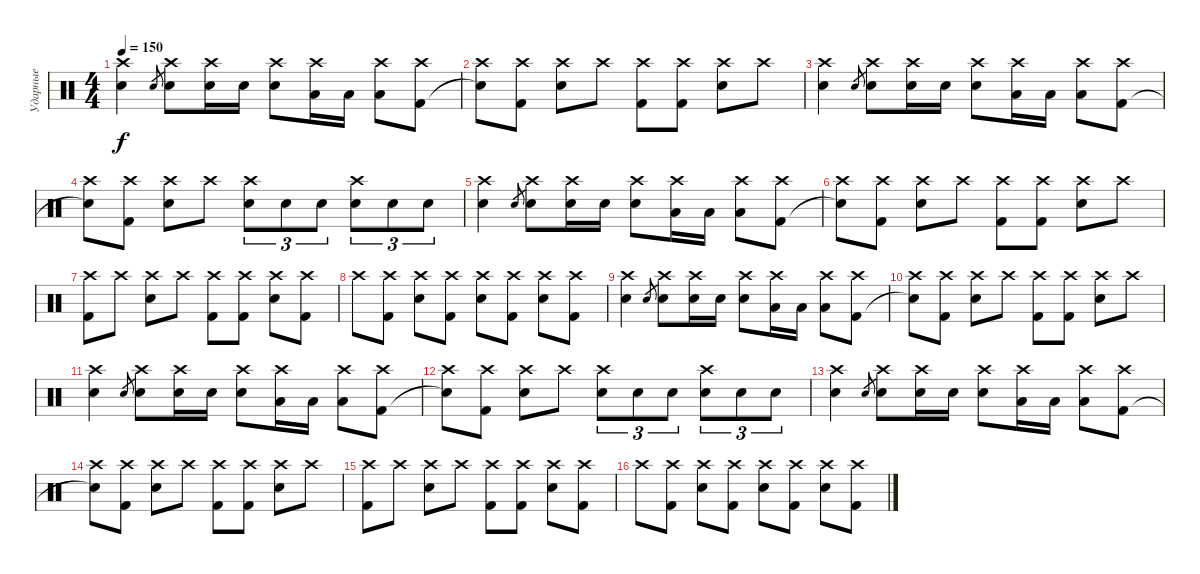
\track ("Ударные" "Ударные") {instrument percussion}
\staff {score}
\articulation defaults
\ts (4 4)
\tempo 150
\clef neutral
\ks c
("Crash high (hit)" "Snare (hit) 2").4{dy f} "Snare (hit) 2".8{gr} ("Crash high (hit)" "Snare (hit) 2").8 ("Crash high (hit)" "Snare (hit) 2").16 "Snare (hit) 2".16 ("Crash high (hit)" "Snare (hit) 2").8 ("Crash high (hit)" "Low Floor Tom (hit)").16 "Low Floor Tom (hit)".16 ("Crash high (hit)" "Low Floor Tom (hit)").8 ("Crash high (hit)" "Kick (hit) 2").8 |
("Crash high (hit)" "Snare (hit)"{t}).8 ("Crash high (hit)" "Kick (hit) 2").8 ("Crash high (hit)" "Snare (hit) 2").8 "Crash high (hit)".8 ("Crash high (hit)" "Kick (hit) 2").8 ("Crash high (hit)" "Kick (hit) 2").8 ("Crash high (hit)" "Snare (hit) 2").8 "Crash high (hit)".8 |
("Crash high (hit)" "Snare (hit) 2").4 "Snare (hit) 2".8{gr} ("Crash high (hit)" "Snare (hit) 2").8 ("Crash high (hit)" "Snare (hit) 2").16 "Snare (hit) 2".16 ("Crash high (hit)" "Snare (hit) 2").8 ("Crash high (hit)" "Low Floor Tom (hit)").16 "Low Floor Tom (hit)".16 ("Crash high (hit)" "Low Floor Tom (hit)").8 ("Crash high (hit)" "Kick (hit) 2").8 |
("Crash high (hit)" "Snare (hit)"{t}).8 ("Crash high (hit)" "Kick (hit) 2").8 ("Crash high (hit)" "Snare (hit) 2").8 "Crash high (hit)".8 ("Crash high (hit)" "Snare (hit) 2").8{tu (3 2)} "Snare (hit) 2".8{tu (3 2)} "Snare (hit) 2".8{tu (3 2)} ("Crash high (hit)" "Snare (hit) 2").8{tu (3 2)} "Snare (hit) 2".8{tu (3 2)} "Snare (hit) 2".8{tu (3 2)} |
("Crash high (hit)" "Snare (hit) 2").4 "Snare (hit) 2".8{gr} ("Crash high (hit)" "Snare (hit) 2").8 ("Crash high (hit)" "Snare (hit) 2").16 "Snare (hit) 2".16 ("Crash high (hit)" "Snare (hit) 2").8 ("Crash high (hit)" "Low Floor Tom (hit)").16 "Low Floor Tom (hit)".16 ("Crash high (hit)" "Low Floor Tom (hit)").8 ("Crash high (hit)" "Kick (hit) 2").8 |
("Crash high (hit)" "Snare (hit)"{t}).8 ("Crash high (hit)" "Kick (hit) 2").8 ("Crash high (hit)" "Snare (hit) 2").8 "Crash high (hit)".8 ("Crash high (hit)" "Kick (hit) 2").8 ("Crash high (hit)" "Kick (hit) 2").8 ("Crash high (hit)" "Snare (hit) 2").8 "Crash high (hit)".8 |
("Crash high (hit)" "Kick (hit) 2").8 "Crash high (hit)".8 ("Crash high (hit)" "Snare (hit) 2").8 "Crash high (hit)".8 ("Crash high (hit)" "Kick (hit) 2").8 ("Crash high (hit)" "Kick (hit) 2").8 ("Crash high (hit)" "Snare (hit) 2").8 ("Crash high (hit)" "Kick (hit) 2").8 |
"Crash high (hit)".8 ("Crash high (hit)" "Kick (hit) 2").8 ("Crash high (hit)" "Snare (hit) 2").8 ("Crash high (hit)" "Kick (hit) 2").8 ("Crash high (hit)" "Snare (hit) 2").8 ("Crash high (hit)" "Kick (hit) 2").8 ("Crash high (hit)" "Snare (hit) 2").8 ("Crash high (hit)" "Kick (hit) 2").8 |
("Crash high (hit)" "Snare (hit) 2").4 "Snare (hit) 2".8{gr} ("Crash high (hit)" "Snare (hit) 2").8 ("Crash high (hit)" "Snare (hit) 2").16 "Snare (hit) 2".16 ("Crash high (hit)" "Snare (hit) 2").8 ("Crash high (hit)" "Low Floor Tom (hit)").16 "Low Floor Tom (hit)".16 ("Crash high (hit)" "Low Floor Tom (hit)").8 ("Crash high (hit)" "Kick (hit) 2").8 |
("Crash high (hit)" "Snare (hit)"{t}).8 ("Crash high (hit)" "Kick (hit) 2").8 ("Crash high (hit)" "Snare (hit) 2").8 "Crash high (hit)".8 ("Crash high (hit)" "Kick (hit) 2").8 ("Crash high (hit)" "Kick (hit) 2").8 ("Crash high (hit)" "Snare (hit) 2").8 "Crash high (hit)".8 |
("Crash high (hit)" "Snare (hit) 2").4 "Snare (hit) 2".8{gr} ("Crash high (hit)" "Snare (hit) 2").8 ("Crash high (hit)" "Snare (hit) 2").16 "Snare (hit) 2".16 ("Crash high (hit)" "Snare (hit) 2").8 ("Crash high (hit)" "Low Floor Tom (hit)").16 "Low Floor Tom (hit)".16 ("Crash high (hit)" "Low Floor Tom (hit)").8 ("Crash high (hit)" "Kick (hit) 2").8 |
("Crash high (hit)" "Snare (hit)"{t}).8 ("Crash high (hit)" "Kick (hit) 2").8 ("Crash high (hit)" "Snare (hit) 2").8 "Crash high (hit)".8 ("Crash high (hit)" "Snare (hit) 2").8{tu (3 2)} "Snare (hit) 2".8{tu (3 2)} "Snare (hit) 2".8{tu (3 2)} ("Crash high (hit)" "Snare (hit) 2").8{tu (3 2)} "Snare (hit) 2".8{tu (3 2)} "Snare (hit) 2".8{tu (3 2)} |
("Crash high (hit)" "Snare (hit) 2").4 "Snare (hit) 2".8{gr} ("Crash high (hit)" "Snare (hit) 2").8 ("Crash high (hit)" "Snare (hit) 2").16 "Snare (hit) 2".16 ("Crash high (hit)" "Snare (hit) 2").8 ("Crash high (hit)" "Low Floor Tom (hit)").16 "Low Floor Tom (hit)".16 ("Crash high (hit)" "Low Floor Tom (hit)").8 ("Crash high (hit)" "Kick (hit) 2").8 |
("Crash high (hit)" "Snare (hit)"{t}).8 ("Crash high (hit)" "Kick (hit) 2").8 ("Crash high (hit)" "Snare (hit) 2").8 "Crash high (hit)".8 ("Crash high (hit)" "Kick (hit) 2").8 ("Crash high (hit)" "Kick (hit) 2").8 ("Crash high (hit)" "Snare (hit) 2").8 "Crash high (hit)".8 |
("Crash high (hit)" "Kick (hit) 2").8 "Crash high (hit)".8 ("Crash high (hit)" "Snare (hit) 2").8 "Crash high (hit)".8 ("Crash high (hit)" "Kick (hit) 2").8 ("Crash high (hit)" "Kick (hit) 2").8 ("Crash high (hit)" "Snare (hit) 2").8 ("Crash high (hit)" "Kick (hit) 2").8 |
"Crash high (hit)".8 ("Crash high (hit)" "Kick (hit) 2").8 ("Crash high (hit)" "Snare (hit) 2").8 ("Crash high (hit)" "Kick (hit) 2").8 ("Crash high (hit)" "Snare (hit) 2").8 ("Crash high (hit)" "Kick (hit) 2").8 ("Crash high (hit)" "Snare (hit) 2").8 ("Crash high (hit)" "Kick (hit) 2").8
